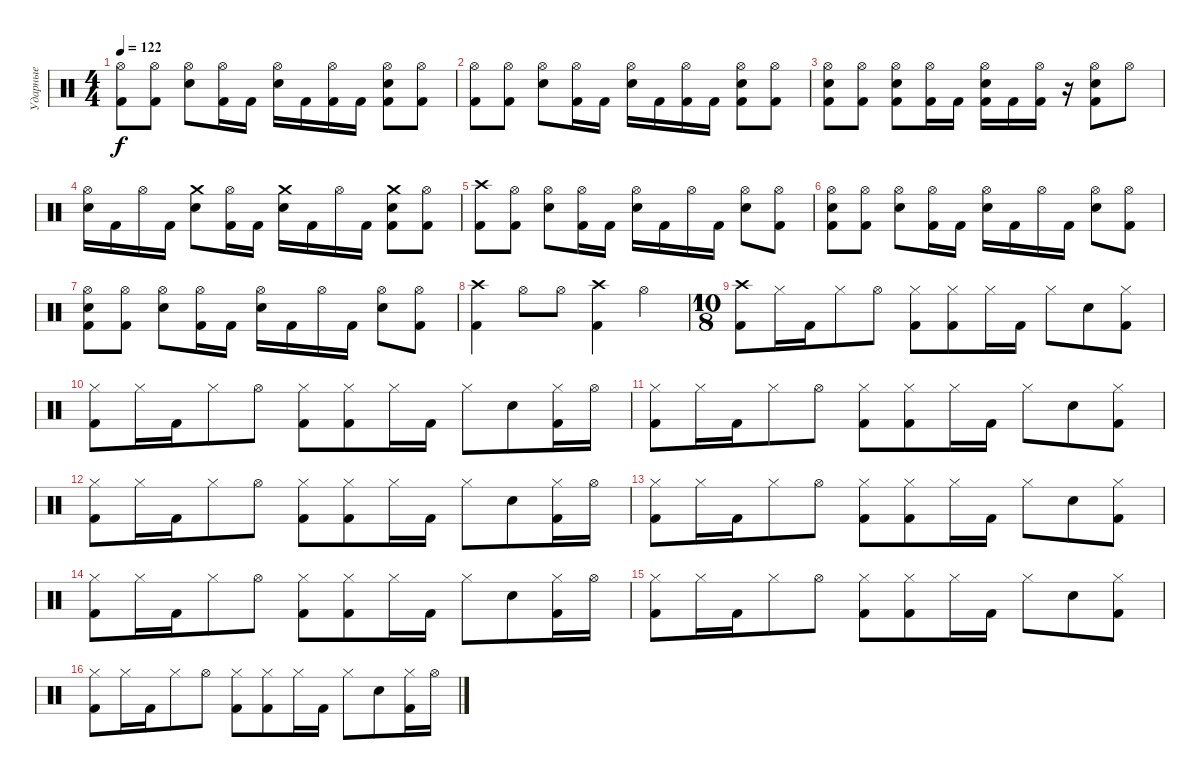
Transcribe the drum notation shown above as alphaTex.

\track ("Ударные" "Ударные") {instrument percussion}
\staff {score}
\articulation defaults
\ts (4 4)
\tempo 122
\clef neutral
\ks c
("Kick (hit) 2" "Hi-Hat (open)").8{dy f} ("Hi-Hat (open)" "Kick (hit) 2").8 ("Hi-Hat (open)" "Snare (hit) 2").8 ("Hi-Hat (open)" "Kick (hit) 2").16 "Kick (hit) 2".16 ("Hi-Hat (open)" "Snare (hit) 2").16 "Kick (hit) 2".16 ("Hi-Hat (open)" "Kick (hit) 2").16 "Kick (hit) 2".16 ("Kick (hit) 2" "Hi-Hat (open)" "Snare (hit) 2").8 ("Hi-Hat (open)" "Kick (hit) 2").8 |
("Kick (hit) 2" "Hi-Hat (open)").8 ("Hi-Hat (open)" "Kick (hit) 2").8 ("Hi-Hat (open)" "Snare (hit) 2").8 ("Hi-Hat (open)" "Kick (hit) 2").16 "Kick (hit) 2".16 ("Hi-Hat (open)" "Snare (hit) 2").16 "Kick (hit) 2".16 ("Hi-Hat (open)" "Kick (hit) 2").16 "Kick (hit) 2".16 ("Kick (hit) 2" "Hi-Hat (open)" "Snare (hit) 2").8 ("Hi-Hat (open)" "Kick (hit) 2").8 |
("Snare (hit) 2" "Hi-Hat (open)" "Kick (hit) 2").8 ("Hi-Hat (open)" "Kick (hit) 2").8 ("Hi-Hat (open)" "Snare (hit) 2" "Kick (hit) 2").8 ("Hi-Hat (open)" "Kick (hit) 2").16 "Kick (hit) 2".16 ("Hi-Hat (open)" "Snare (hit) 2" "Kick (hit) 2").16 "Kick (hit) 2".16 ("Hi-Hat (open)" "Kick (hit) 2").16 r.16 ("Kick (hit) 2" "Hi-Hat (open)" "Snare (hit) 2").8 "Hi-Hat (open)".8 |
("Hi-Hat (open)" "Snare (hit) 2").16 "Kick (hit) 2".16 "Hi-Hat (open)".16 "Kick (hit) 2".16 ("Crash medium (hit)" "Snare (hit) 2").8 ("Hi-Hat (open)" "Kick (hit) 2").16 "Kick (hit) 2".16 ("Crash medium (hit)" "Snare (hit) 2").16 "Kick (hit) 2".16 "Hi-Hat (open)".16 "Kick (hit) 2".16 ("Crash medium (hit)" "Kick (hit) 2" "Snare (hit) 2").8 ("Hi-Hat (open)" "Kick (hit) 2").8 |
("Kick (hit) 2" "Crash high (hit)").8 ("Hi-Hat (open)" "Kick (hit) 2").8 ("Hi-Hat (open)" "Snare (hit) 2").8 ("Hi-Hat (open)" "Kick (hit) 2").16 "Kick (hit) 2".16 ("Hi-Hat (open)" "Snare (hit) 2").16 "Kick (hit) 2".16 "Hi-Hat (open)".16 "Kick (hit) 2".16 ("Hi-Hat (open)" "Snare (hit) 2").8 ("Hi-Hat (open)" "Kick (hit) 2").8 |
("Snare (hit) 2" "Hi-Hat (open)" "Kick (hit) 2").8 ("Hi-Hat (open)" "Kick (hit) 2").8 ("Hi-Hat (open)" "Snare (hit) 2").8 ("Hi-Hat (open)" "Kick (hit) 2").16 "Kick (hit) 2".16 ("Hi-Hat (open)" "Snare (hit) 2").16 "Kick (hit) 2".16 "Hi-Hat (open)".16 "Kick (hit) 2".16 ("Hi-Hat (open)" "Snare (hit) 2").8 ("Hi-Hat (open)" "Kick (hit) 2").8 |
("Snare (hit) 2" "Hi-Hat (open)" "Kick (hit) 2").8 ("Hi-Hat (open)" "Kick (hit) 2").8 ("Hi-Hat (open)" "Snare (hit) 2").8 ("Hi-Hat (open)" "Kick (hit) 2").16 "Kick (hit) 2".16 ("Hi-Hat (open)" "Snare (hit) 2").16 "Kick (hit) 2".16 "Hi-Hat (open)".16 "Kick (hit) 2".16 ("Hi-Hat (open)" "Snare (hit) 2").8 ("Hi-Hat (open)" "Kick (hit) 2").8 |
("Kick (hit) 2" "Crash high (hit)").4 "Hi-Hat (open)".8 "Hi-Hat (open)".8 ("Kick (hit) 2" "Crash high (hit)").4 "Hi-Hat (open)".4 |
\ts (10 8)
("Kick (hit) 2" "Crash high (hit)").8 "Hi-Hat (closed)".16 "Kick (hit) 2".16 "Hi-Hat (closed)".8 "Hi-Hat (open)".8 ("Hi-Hat (closed)" "Kick (hit) 2").8 ("Hi-Hat (closed)" "Kick (hit) 2").8 "Hi-Hat (closed)".16 "Kick (hit) 2".16 "Hi-Hat (closed)".8 "Snare (hit) 2".8 ("Hi-Hat (closed)" "Kick (hit) 2").8 |
("Kick (hit) 2" "Hi-Hat (closed)").8 "Hi-Hat (closed)".16 "Kick (hit) 2".16 "Hi-Hat (closed)".8 "Hi-Hat (open)".8 ("Hi-Hat (closed)" "Kick (hit) 2").8 ("Hi-Hat (closed)" "Kick (hit) 2").8 "Hi-Hat (closed)".16 "Kick (hit) 2".16 "Hi-Hat (closed)".8 "Snare (hit) 2".8 ("Hi-Hat (closed)" "Kick (hit) 2").16 "Hi-Hat (open)".16 |
("Kick (hit) 2" "Hi-Hat (closed)").8 "Hi-Hat (closed)".16 "Kick (hit) 2".16 "Hi-Hat (closed)".8 "Hi-Hat (open)".8 ("Hi-Hat (closed)" "Kick (hit) 2").8 ("Hi-Hat (closed)" "Kick (hit) 2").8 "Hi-Hat (closed)".16 "Kick (hit) 2".16 "Hi-Hat (closed)".8 "Snare (hit) 2".8 ("Hi-Hat (closed)" "Kick (hit) 2").8 |
("Kick (hit) 2" "Hi-Hat (closed)").8 "Hi-Hat (closed)".16 "Kick (hit) 2".16 "Hi-Hat (closed)".8 "Hi-Hat (open)".8 ("Hi-Hat (closed)" "Kick (hit) 2").8 ("Hi-Hat (closed)" "Kick (hit) 2").8 "Hi-Hat (closed)".16 "Kick (hit) 2".16 "Hi-Hat (closed)".8 "Snare (hit) 2".8 ("Hi-Hat (closed)" "Kick (hit) 2").16 "Hi-Hat (open)".16 |
("Kick (hit) 2" "Hi-Hat (closed)").8 "Hi-Hat (closed)".16 "Kick (hit) 2".16 "Hi-Hat (closed)".8 "Hi-Hat (open)".8 ("Hi-Hat (closed)" "Kick (hit) 2").8 ("Hi-Hat (closed)" "Kick (hit) 2").8 "Hi-Hat (closed)".16 "Kick (hit) 2".16 "Hi-Hat (closed)".8 "Snare (hit) 2".8 ("Hi-Hat (closed)" "Kick (hit) 2").8 |
("Kick (hit) 2" "Hi-Hat (closed)").8 "Hi-Hat (closed)".16 "Kick (hit) 2".16 "Hi-Hat (closed)".8 "Hi-Hat (open)".8 ("Hi-Hat (closed)" "Kick (hit) 2").8 ("Hi-Hat (closed)" "Kick (hit) 2").8 "Hi-Hat (closed)".16 "Kick (hit) 2".16 "Hi-Hat (closed)".8 "Snare (hit) 2".8 ("Hi-Hat (closed)" "Kick (hit) 2").16 "Hi-Hat (open)".16 |
("Kick (hit) 2" "Hi-Hat (closed)").8 "Hi-Hat (closed)".16 "Kick (hit) 2".16 "Hi-Hat (closed)".8 "Hi-Hat (open)".8 ("Hi-Hat (closed)" "Kick (hit) 2").8 ("Hi-Hat (closed)" "Kick (hit) 2").8 "Hi-Hat (closed)".16 "Kick (hit) 2".16 "Hi-Hat (closed)".8 "Snare (hit) 2".8 ("Hi-Hat (closed)" "Kick (hit) 2").8 |
("Kick (hit) 2" "Hi-Hat (closed)").8 "Hi-Hat (closed)".16 "Kick (hit) 2".16 "Hi-Hat (closed)".8 "Hi-Hat (open)".8 ("Hi-Hat (closed)" "Kick (hit) 2").8 ("Hi-Hat (closed)" "Kick (hit) 2").8 "Hi-Hat (closed)".16 "Kick (hit) 2".16 "Hi-Hat (closed)".8 "Snare (hit) 2".8 ("Hi-Hat (closed)" "Kick (hit) 2").16 "Hi-Hat (open)".16
